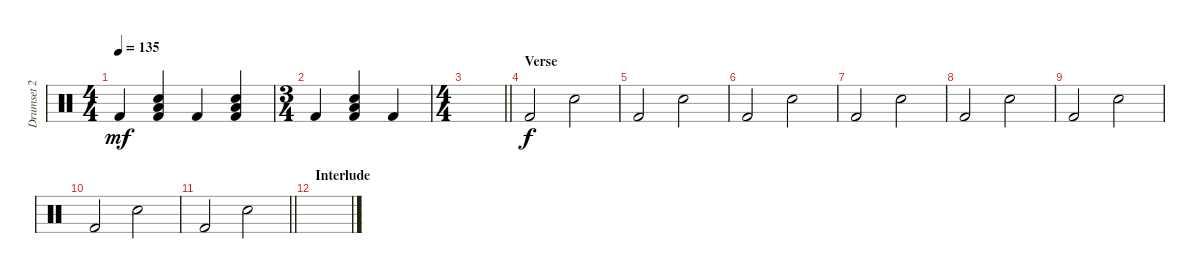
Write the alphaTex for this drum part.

\track ("Drumset 2" "Drumset 2") {instrument percussion}
\staff {score}
\articulation defaults
\ts (4 4)
\tempo 135
\clef neutral
\ks c "Kick (hit) 2".4{dy mf}
("Low Floor Tom (hit)" "Electric Snare (hit)" "Kick (hit) 2").4 "Kick (hit) 2".4 ("Low Floor Tom (hit)" "Electric Snare (hit)" "Kick (hit) 2").4 |
\ts (3 4)
"Kick (hit) 2".4 ("Low Floor Tom (hit)" "Electric Snare (hit)" "Kick (hit) 2").4 "Kick (hit) 2".4 |
\ts (4 4)
\barLineRight lightlight
|
\section ("" "Verse")
"Kick (hit) 2".2{dy f} "Electric Snare (hit)".2 |
"Kick (hit) 2".2 "Electric Snare (hit)".2 |
"Kick (hit) 2".2 "Electric Snare (hit)".2 |
"Kick (hit) 2".2 "Electric Snare (hit)".2 |
"Kick (hit) 2".2 "Electric Snare (hit)".2 |
"Kick (hit) 2".2 "Electric Snare (hit)".2 |
"Kick (hit) 2".2 "Electric Snare (hit)".2 |
\barLineRight lightlight "Kick (hit) 2".2 "Electric Snare (hit)".2
|
\section ("" "Interlude")
